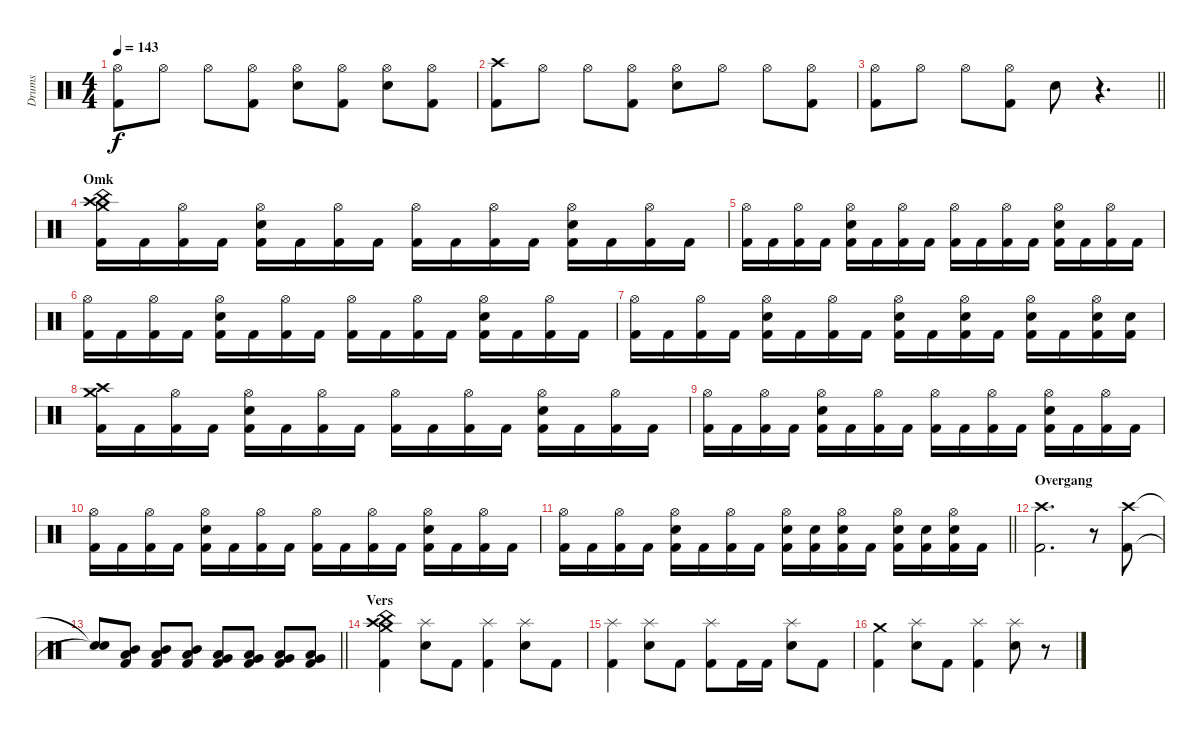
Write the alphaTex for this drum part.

\track ("Drums" "Drums") {instrument percussion}
\staff {score}
\articulation defaults
\ts (4 4)
\tempo 143
\clef neutral
\ks c
("Hi-Hat (open)" "Kick (hit) 2").8{dy f} "Hi-Hat (open)".8 "Hi-Hat (open)".8 ("Hi-Hat (open)" "Kick (hit) 2").8 ("Hi-Hat (open)" "Snare (hit) 2").8 ("Hi-Hat (open)" "Kick (hit) 2").8 ("Hi-Hat (open)" "Snare (hit) 2").8 ("Hi-Hat (open)" "Kick (hit) 2").8 |
("Crash high (hit)" "Kick (hit) 2").8 "Hi-Hat (open)".8 "Hi-Hat (open)".8 ("Hi-Hat (open)" "Kick (hit) 2").8 ("Hi-Hat (open)" "Snare (hit) 2").8 "Hi-Hat (open)".8 "Hi-Hat (open)".8 ("Hi-Hat (open)" "Kick (hit) 2").8 |
\barLineRight lightlight
("Hi-Hat (open)" "Kick (hit) 2").8 "Hi-Hat (open)".8 "Hi-Hat (open)".8 ("Hi-Hat (open)" "Kick (hit) 2").8 "Snare (hit) 2".8 r.4{d} |
\section ("" "Omk")
("Crash medium (hit)" "Crash high (hit)" "China (hit)" "Kick (hit) 2").16 "Kick (hit) 2".16 ("Hi-Hat (open)" "Kick (hit) 2").16 "Kick (hit) 2".16 ("Hi-Hat (open)" "Snare (hit) 2" "Kick (hit) 2").16 "Kick (hit) 2".16 ("Hi-Hat (open)" "Kick (hit) 2").16 "Kick (hit) 2".16 ("Hi-Hat (open)" "Kick (hit) 2").16 "Kick (hit) 2".16 ("Hi-Hat (open)" "Kick (hit) 2").16 "Kick (hit) 2".16 ("Hi-Hat (open)" "Snare (hit) 2" "Kick (hit) 2").16 "Kick (hit) 2".16 ("Hi-Hat (open)" "Kick (hit) 2").16 "Kick (hit) 2".16 |
("Hi-Hat (open)" "Kick (hit) 2").16 "Kick (hit) 2".16 ("Hi-Hat (open)" "Kick (hit) 2").16 "Kick (hit) 2".16 ("Hi-Hat (open)" "Snare (hit) 2" "Kick (hit) 2").16 "Kick (hit) 2".16 ("Hi-Hat (open)" "Kick (hit) 2").16 "Kick (hit) 2".16 ("Hi-Hat (open)" "Kick (hit) 2").16 "Kick (hit) 2".16 ("Hi-Hat (open)" "Kick (hit) 2").16 "Kick (hit) 2".16 ("Hi-Hat (open)" "Snare (hit) 2" "Kick (hit) 2").16 "Kick (hit) 2".16 ("Hi-Hat (open)" "Kick (hit) 2").16 "Kick (hit) 2".16 |
("Hi-Hat (open)" "Kick (hit) 2").16 "Kick (hit) 2".16 ("Hi-Hat (open)" "Kick (hit) 2").16 "Kick (hit) 2".16 ("Hi-Hat (open)" "Snare (hit) 2" "Kick (hit) 2").16 "Kick (hit) 2".16 ("Hi-Hat (open)" "Kick (hit) 2").16 "Kick (hit) 2".16 ("Hi-Hat (open)" "Kick (hit) 2").16 "Kick (hit) 2".16 ("Hi-Hat (open)" "Kick (hit) 2").16 "Kick (hit) 2".16 ("Hi-Hat (open)" "Snare (hit) 2" "Kick (hit) 2").16 "Kick (hit) 2".16 ("Hi-Hat (open)" "Kick (hit) 2").16 "Kick (hit) 2".16 |
("Hi-Hat (open)" "Kick (hit) 2").16 "Kick (hit) 2".16 ("Hi-Hat (open)" "Kick (hit) 2").16 "Kick (hit) 2".16 ("Hi-Hat (open)" "Snare (hit) 2" "Kick (hit) 2").16 "Kick (hit) 2".16 ("Hi-Hat (open)" "Kick (hit) 2").16 "Kick (hit) 2".16 ("Hi-Hat (open)" "Snare (hit) 2" "Kick (hit) 2").16 "Kick (hit) 2".16 ("Hi-Hat (open)" "Snare (hit) 2" "Kick (hit) 2").16 "Kick (hit) 2".16 ("Hi-Hat (open)" "Snare (hit) 2" "Kick (hit) 2").16 "Kick (hit) 2".16 ("Hi-Hat (open)" "Snare (hit) 2" "Kick (hit) 2").16 ("Snare (hit) 2" "Kick (hit) 2").16 |
("Crash medium (hit)" "Crash high (hit)" "Kick (hit) 2").16 "Kick (hit) 2".16 ("Hi-Hat (open)" "Kick (hit) 2").16 "Kick (hit) 2".16 ("Hi-Hat (open)" "Snare (hit) 2" "Kick (hit) 2").16 "Kick (hit) 2".16 ("Hi-Hat (open)" "Kick (hit) 2").16 "Kick (hit) 2".16 ("Hi-Hat (open)" "Kick (hit) 2").16 "Kick (hit) 2".16 ("Hi-Hat (open)" "Kick (hit) 2").16 "Kick (hit) 2".16 ("Hi-Hat (open)" "Snare (hit) 2" "Kick (hit) 2").16 "Kick (hit) 2".16 ("Hi-Hat (open)" "Kick (hit) 2").16 "Kick (hit) 2".16 |
("Hi-Hat (open)" "Kick (hit) 2").16 "Kick (hit) 2".16 ("Hi-Hat (open)" "Kick (hit) 2").16 "Kick (hit) 2".16 ("Hi-Hat (open)" "Snare (hit) 2" "Kick (hit) 2").16 "Kick (hit) 2".16 ("Hi-Hat (open)" "Kick (hit) 2").16 "Kick (hit) 2".16 ("Hi-Hat (open)" "Kick (hit) 2").16 "Kick (hit) 2".16 ("Hi-Hat (open)" "Kick (hit) 2").16 "Kick (hit) 2".16 ("Hi-Hat (open)" "Snare (hit) 2" "Kick (hit) 2").16 "Kick (hit) 2".16 ("Hi-Hat (open)" "Kick (hit) 2").16 "Kick (hit) 2".16 |
("Hi-Hat (open)" "Kick (hit) 2").16 "Kick (hit) 2".16 ("Hi-Hat (open)" "Kick (hit) 2").16 "Kick (hit) 2".16 ("Hi-Hat (open)" "Snare (hit) 2" "Kick (hit) 2").16 "Kick (hit) 2".16 ("Hi-Hat (open)" "Kick (hit) 2").16 "Kick (hit) 2".16 ("Hi-Hat (open)" "Kick (hit) 2").16 "Kick (hit) 2".16 ("Hi-Hat (open)" "Kick (hit) 2").16 "Kick (hit) 2".16 ("Hi-Hat (open)" "Snare (hit) 2" "Kick (hit) 2").16 "Kick (hit) 2".16 ("Hi-Hat (open)" "Kick (hit) 2").16 "Kick (hit) 2".16 |
\barLineRight lightlight
("Hi-Hat (open)" "Kick (hit) 2").16 "Kick (hit) 2".16 ("Hi-Hat (open)" "Kick (hit) 2").16 "Kick (hit) 2".16 ("Hi-Hat (open)" "Snare (hit) 2" "Kick (hit) 2").16 "Kick (hit) 2".16 ("Hi-Hat (open)" "Kick (hit) 2").16 "Kick (hit) 2".16 ("Hi-Hat (open)" "Snare (hit) 2" "Kick (hit) 2").16 ("Snare (hit) 2" "Kick (hit) 2").16 ("Hi-Hat (open)" "Snare (hit) 2" "Kick (hit) 2").16 "Kick (hit) 2".16 ("Hi-Hat (open)" "Snare (hit) 2" "Kick (hit) 2").16 ("Snare (hit) 2" "Kick (hit) 2").16 ("Hi-Hat (open)" "Snare (hit) 2" "Kick (hit) 2").16 "Kick (hit) 2".16 |
\section ("" "Overgang")
("Crash high (hit)" "Kick (hit) 2").2{d} r.8 ("Crash high (hit)" "Kick (hit) 2").8 |
\barLineRight lightlight
("Snare (hit)"{t} "Snare (hit)"{t}).8 ("Mid Tom (hit)" "Low Tom (hit)" "Kick (hit) 2").8 ("Mid Tom (hit)" "Low Tom (hit)" "Kick (hit) 2").8 ("Mid Tom (hit)" "Low Tom (hit)" "Kick (hit) 2").8 ("Low Tom (hit)" "Very Low Tom (hit)" "Kick (hit) 2").8 ("Low Tom (hit)" "Very Low Tom (hit)" "Kick (hit) 2").8 ("Very Low Tom (hit)" "Low Floor Tom (hit)" "Kick (hit) 2").8 ("Very Low Tom (hit)" "Low Floor Tom (hit)" "Kick (hit) 2").8 |
\section ("" "Vers")
("China (hit)" "Crash medium (hit)" "Crash high (hit)" "Kick (hit) 2").4 ("Splash (hit)" "Snare (hit) 2").8 "Kick (hit) 2".8 ("Splash (hit)" "Kick (hit) 2").4 ("Splash (hit)" "Snare (hit) 2").8 "Kick (hit) 2".8 |
("Splash (hit)" "Kick (hit) 2").4 ("Splash (hit)" "Snare (hit) 2").8 "Kick (hit) 2".8 ("Splash (hit)" "Kick (hit) 2").8 "Kick (hit) 2".16 "Kick (hit) 2".16 ("Splash (hit)" "Snare (hit) 2").8 "Kick (hit) 2".8 |
("Crash medium (hit)" "Kick (hit) 2").4 ("Splash (hit)" "Snare (hit) 2").8 "Kick (hit) 2".8 ("Splash (hit)" "Kick (hit) 2").4 ("Splash (hit)" "Snare (hit) 2").8 r.8
